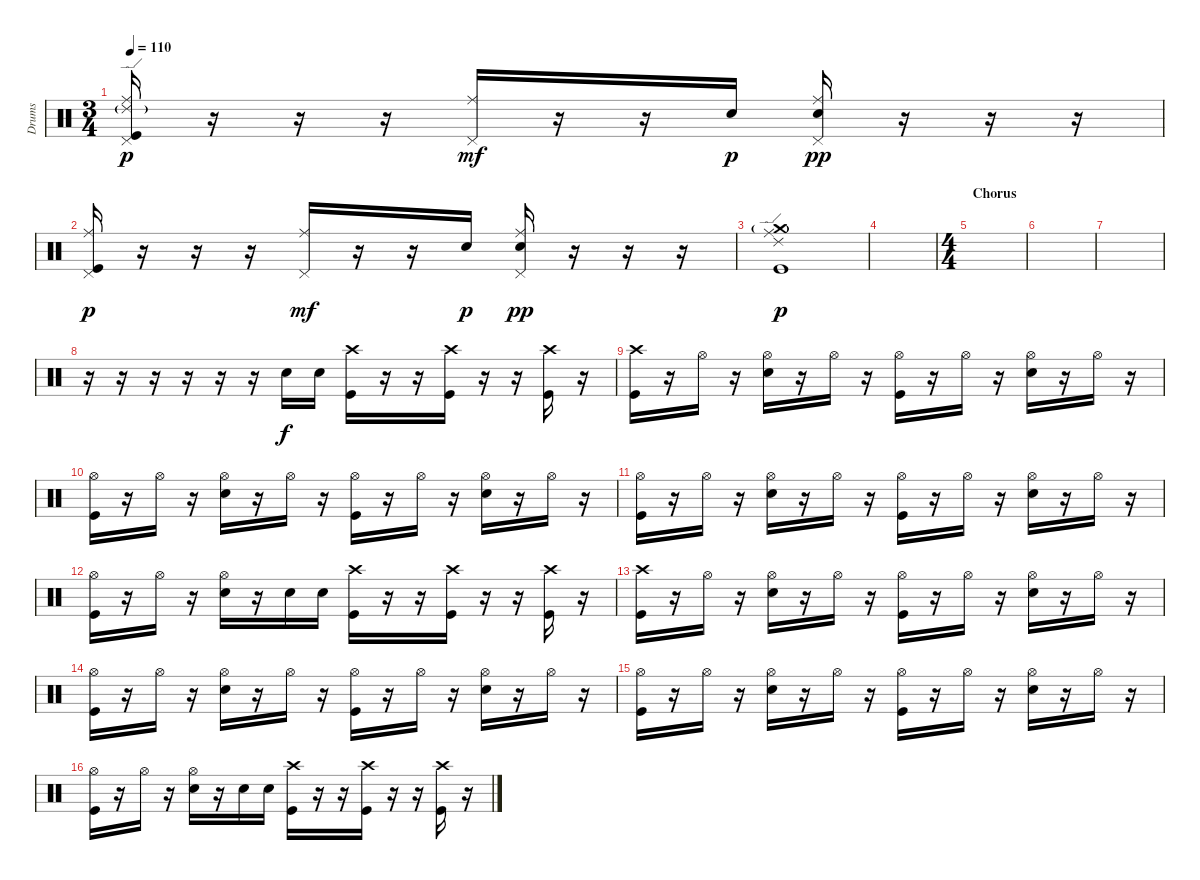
\track ("Drums" "Drums") {instrument percussion}
\staff {score}
\articulation defaults
\ts (3 4)
\tempo 110
\clef neutral
\ks c
("Pedal Hi-Hat (hit)" "Ride (middle)" "Ride (edge) 2"{g} "Kick (hit)").16{dy p} r.16 r.16 r.16 ("Pedal Hi-Hat (hit)" "Ride (middle)").16{dy mf} r.16 r.16 "Snare (hit) 2".16{dy p} ("Pedal Hi-Hat (hit)" "Ride (middle)" "Snare (hit) 2").16{dy pp} r.16 r.16 r.16 |
("Pedal Hi-Hat (hit)" "Ride (middle)" "Kick (hit)").16{dy p} r.16 r.16 r.16 ("Pedal Hi-Hat (hit)" "Ride (middle)").16{dy mf} r.16 r.16 "Snare (hit) 2".16{dy p} ("Pedal Hi-Hat (hit)" "Ride (middle)" "Snare (hit) 2").16{dy pp} r.16 r.16 r.16 |
("Crash medium (hit)"{g} "Ride (middle)" "Ride (edge) 2" "Kick (hit)").1{dy p} |
|
\ts (4 4)
\section ("" "Chorus")
|
|
|
r.16 r.16 r.16 r.16 r.16 r.16 "Snare (hit) 2".16{dy f} "Snare (hit) 2".16 ("Crash high (hit)" "Kick (hit)").16 r.16 r.16 ("Crash high (hit)" "Kick (hit)").16 r.16 r.16 ("Crash high (hit)" "Kick (hit)").16 r.16 |
("Crash high (hit)" "Kick (hit)").16 r.16 "Hi-Hat (open)".16 r.16 ("Hi-Hat (open)" "Snare (hit) 2").16 r.16 "Hi-Hat (open)".16 r.16 ("Hi-Hat (open)" "Kick (hit)").16 r.16 "Hi-Hat (open)".16 r.16 ("Hi-Hat (open)" "Snare (hit) 2").16 r.16 "Hi-Hat (open)".16 r.16 |
("Hi-Hat (open)" "Kick (hit)").16 r.16 "Hi-Hat (open)".16 r.16 ("Hi-Hat (open)" "Snare (hit) 2").16 r.16 "Hi-Hat (open)".16 r.16 ("Hi-Hat (open)" "Kick (hit)").16 r.16 "Hi-Hat (open)".16 r.16 ("Hi-Hat (open)" "Snare (hit) 2").16 r.16 "Hi-Hat (open)".16 r.16 |
("Hi-Hat (open)" "Kick (hit)").16 r.16 "Hi-Hat (open)".16 r.16 ("Hi-Hat (open)" "Snare (hit) 2").16 r.16 "Hi-Hat (open)".16 r.16 ("Hi-Hat (open)" "Kick (hit)").16 r.16 "Hi-Hat (open)".16 r.16 ("Hi-Hat (open)" "Snare (hit) 2").16 r.16 "Hi-Hat (open)".16 r.16 |
("Hi-Hat (open)" "Kick (hit)").16 r.16 "Hi-Hat (open)".16 r.16 ("Hi-Hat (open)" "Snare (hit) 2").16 r.16 "Snare (hit) 2".16 "Snare (hit) 2".16 ("Crash high (hit)" "Kick (hit)").16 r.16 r.16 ("Crash high (hit)" "Kick (hit)").16 r.16 r.16 ("Crash high (hit)" "Kick (hit)").16 r.16 |
("Crash high (hit)" "Kick (hit)").16 r.16 "Hi-Hat (open)".16 r.16 ("Hi-Hat (open)" "Snare (hit) 2").16 r.16 "Hi-Hat (open)".16 r.16 ("Hi-Hat (open)" "Kick (hit)").16 r.16 "Hi-Hat (open)".16 r.16 ("Hi-Hat (open)" "Snare (hit) 2").16 r.16 "Hi-Hat (open)".16 r.16 |
("Hi-Hat (open)" "Kick (hit)").16 r.16 "Hi-Hat (open)".16 r.16 ("Hi-Hat (open)" "Snare (hit) 2").16 r.16 "Hi-Hat (open)".16 r.16 ("Hi-Hat (open)" "Kick (hit)").16 r.16 "Hi-Hat (open)".16 r.16 ("Hi-Hat (open)" "Snare (hit) 2").16 r.16 "Hi-Hat (open)".16 r.16 |
("Hi-Hat (open)" "Kick (hit)").16 r.16 "Hi-Hat (open)".16 r.16 ("Hi-Hat (open)" "Snare (hit) 2").16 r.16 "Hi-Hat (open)".16 r.16 ("Hi-Hat (open)" "Kick (hit)").16 r.16 "Hi-Hat (open)".16 r.16 ("Hi-Hat (open)" "Snare (hit) 2").16 r.16 "Hi-Hat (open)".16 r.16 |
("Hi-Hat (open)" "Kick (hit)").16 r.16 "Hi-Hat (open)".16 r.16 ("Hi-Hat (open)" "Snare (hit) 2").16 r.16 "Snare (hit) 2".16 "Snare (hit) 2".16 ("Crash high (hit)" "Kick (hit)").16 r.16 r.16 ("Crash high (hit)" "Kick (hit)").16 r.16 r.16 ("Crash high (hit)" "Kick (hit)").16 r.16
